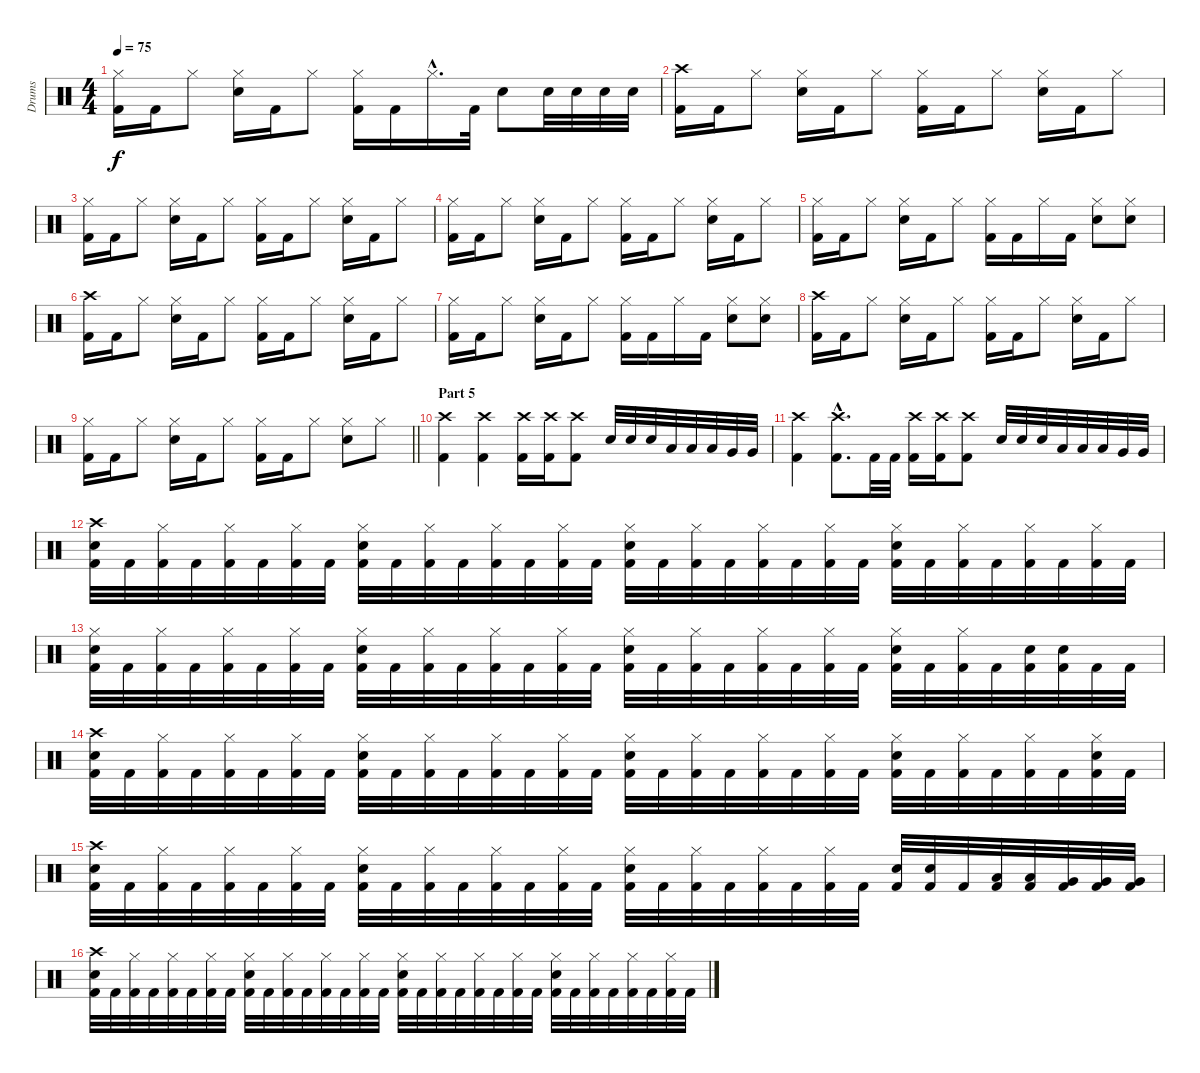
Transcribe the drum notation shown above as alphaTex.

\track ("Drums" "Drums") {instrument percussion}
\staff {score}
\articulation defaults
\ts (4 4)
\tempo 75
\clef neutral
\ks c
("Hi-Hat (closed)" "Kick (hit) 2").16{dy f} "Kick (hit) 2".16 "Hi-Hat (closed)".8 ("Hi-Hat (closed)" "Electric Snare (hit)").16 "Kick (hit) 2".16 "Hi-Hat (closed)".8 ("Hi-Hat (closed)" "Kick (hit) 2").16 "Kick (hit) 2".16 "Hi-Hat (closed)"{hac}.16{d} "Kick (hit) 2".32 "Electric Snare (hit)".8 "Electric Snare (hit)".32 "Electric Snare (hit)".32 "Electric Snare (hit)".32 "Electric Snare (hit)".32 |
("Crash high (hit)" "Kick (hit) 2").16 "Kick (hit) 2".16 "Hi-Hat (closed)".8 ("Hi-Hat (closed)" "Electric Snare (hit)").16 "Kick (hit) 2".16 "Hi-Hat (closed)".8 ("Hi-Hat (closed)" "Kick (hit) 2").16 "Kick (hit) 2".16 "Hi-Hat (closed)".8 ("Hi-Hat (closed)" "Electric Snare (hit)").16 "Kick (hit) 2".16 "Hi-Hat (closed)".8 |
("Hi-Hat (closed)" "Kick (hit) 2").16 "Kick (hit) 2".16 "Hi-Hat (closed)".8 ("Hi-Hat (closed)" "Electric Snare (hit)").16 "Kick (hit) 2".16 "Hi-Hat (closed)".8 ("Hi-Hat (closed)" "Kick (hit) 2").16 "Kick (hit) 2".16 "Hi-Hat (closed)".8 ("Hi-Hat (closed)" "Electric Snare (hit)").16 "Kick (hit) 2".16 "Hi-Hat (closed)".8 |
("Hi-Hat (closed)" "Kick (hit) 2").16 "Kick (hit) 2".16 "Hi-Hat (closed)".8 ("Hi-Hat (closed)" "Electric Snare (hit)").16 "Kick (hit) 2".16 "Hi-Hat (closed)".8 ("Hi-Hat (closed)" "Kick (hit) 2").16 "Kick (hit) 2".16 "Hi-Hat (closed)".8 ("Hi-Hat (closed)" "Electric Snare (hit)").16 "Kick (hit) 2".16 "Hi-Hat (closed)".8 |
("Hi-Hat (closed)" "Kick (hit) 2").16 "Kick (hit) 2".16 "Hi-Hat (closed)".8 ("Hi-Hat (closed)" "Electric Snare (hit)").16 "Kick (hit) 2".16 "Hi-Hat (closed)".8 ("Hi-Hat (closed)" "Kick (hit) 2").16 "Kick (hit) 2".16 "Hi-Hat (closed)".16 "Kick (hit) 2".16 ("Hi-Hat (closed)" "Electric Snare (hit)").8 ("Hi-Hat (closed)" "Electric Snare (hit)").8 |
("Crash high (hit)" "Kick (hit) 2").16 "Kick (hit) 2".16 "Hi-Hat (closed)".8 ("Hi-Hat (closed)" "Electric Snare (hit)").16 "Kick (hit) 2".16 "Hi-Hat (closed)".8 ("Hi-Hat (closed)" "Kick (hit) 2").16 "Kick (hit) 2".16 "Hi-Hat (closed)".8 ("Hi-Hat (closed)" "Electric Snare (hit)").16 "Kick (hit) 2".16 "Hi-Hat (closed)".8 |
("Hi-Hat (closed)" "Kick (hit) 2").16 "Kick (hit) 2".16 "Hi-Hat (closed)".8 ("Hi-Hat (closed)" "Electric Snare (hit)").16 "Kick (hit) 2".16 "Hi-Hat (closed)".8 ("Hi-Hat (closed)" "Kick (hit) 2").16 "Kick (hit) 2".16 "Hi-Hat (closed)".16 "Kick (hit) 2".16 ("Hi-Hat (closed)" "Electric Snare (hit)").8 ("Hi-Hat (closed)" "Electric Snare (hit)").8 |
("Crash high (hit)" "Kick (hit) 2").16 "Kick (hit) 2".16 "Hi-Hat (closed)".8 ("Hi-Hat (closed)" "Electric Snare (hit)").16 "Kick (hit) 2".16 "Hi-Hat (closed)".8 ("Hi-Hat (closed)" "Kick (hit) 2").16 "Kick (hit) 2".16 "Hi-Hat (closed)".8 ("Hi-Hat (closed)" "Electric Snare (hit)").16 "Kick (hit) 2".16 "Hi-Hat (closed)".8 |
\barLineRight lightlight
("Hi-Hat (closed)" "Kick (hit) 2").16 "Kick (hit) 2".16 "Hi-Hat (closed)".8 ("Hi-Hat (closed)" "Electric Snare (hit)").16 "Kick (hit) 2".16 "Hi-Hat (closed)".8 ("Hi-Hat (closed)" "Kick (hit) 2").16 "Kick (hit) 2".16 "Hi-Hat (closed)".8 ("Hi-Hat (closed)" "Electric Snare (hit)").8 "Hi-Hat (closed)".8 |
\section ("" "Part 5")
("Crash high (hit)" "Kick (hit) 2").4 ("Crash high (hit)" "Kick (hit) 2").4 ("Crash high (hit)" "Kick (hit) 2").16 ("Crash high (hit)" "Kick (hit) 2").16 ("Crash high (hit)" "Kick (hit) 2").8 "Electric Snare (hit)".32 "Electric Snare (hit)".32 "Electric Snare (hit)".32 "Low Tom (hit)".32 "Low Tom (hit)".32 "Low Tom (hit)".32 "Very Low Tom (hit)".32 "Very Low Tom (hit)".32 |
("Crash high (hit)" "Kick (hit) 2").4 ("Crash high (hit)"{hac} "Kick (hit) 2"{hac}).8{d} "Kick (hit) 2".32 "Kick (hit) 2".32 ("Crash high (hit)" "Kick (hit) 2").16 ("Crash high (hit)" "Kick (hit) 2").16 ("Crash high (hit)" "Kick (hit) 2").8 "Electric Snare (hit)".32 "Electric Snare (hit)".32 "Electric Snare (hit)".32 "Low Tom (hit)".32 "Low Tom (hit)".32 "Low Tom (hit)".32 "Very Low Tom (hit)".32 "Very Low Tom (hit)".32 |
("Crash high (hit)" "Electric Snare (hit)" "Kick (hit) 2").32 "Kick (hit) 2".32 ("Hi-Hat (closed)" "Kick (hit) 2").32 "Kick (hit) 2".32 ("Hi-Hat (closed)" "Kick (hit) 2").32 "Kick (hit) 2".32 ("Hi-Hat (closed)" "Kick (hit) 2").32 "Kick (hit) 2".32 ("Hi-Hat (closed)" "Electric Snare (hit)" "Kick (hit) 2").32 "Kick (hit) 2".32 ("Hi-Hat (closed)" "Kick (hit) 2").32 "Kick (hit) 2".32 ("Hi-Hat (closed)" "Kick (hit) 2").32 "Kick (hit) 2".32 ("Hi-Hat (closed)" "Kick (hit) 2").32 "Kick (hit) 2".32 ("Hi-Hat (closed)" "Electric Snare (hit)" "Kick (hit) 2").32 "Kick (hit) 2".32 ("Hi-Hat (closed)" "Kick (hit) 2").32 "Kick (hit) 2".32 ("Hi-Hat (closed)" "Kick (hit) 2").32 "Kick (hit) 2".32 ("Hi-Hat (closed)" "Kick (hit) 2").32 "Kick (hit) 2".32 ("Hi-Hat (closed)" "Electric Snare (hit)" "Kick (hit) 2").32 "Kick (hit) 2".32 ("Hi-Hat (closed)" "Kick (hit) 2").32 "Kick (hit) 2".32 ("Hi-Hat (closed)" "Kick (hit) 2").32 "Kick (hit) 2".32 ("Hi-Hat (closed)" "Kick (hit) 2").32 "Kick (hit) 2".32 |
("Hi-Hat (closed)" "Electric Snare (hit)" "Kick (hit) 2").32 "Kick (hit) 2".32 ("Hi-Hat (closed)" "Kick (hit) 2").32 "Kick (hit) 2".32 ("Hi-Hat (closed)" "Kick (hit) 2").32 "Kick (hit) 2".32 ("Hi-Hat (closed)" "Kick (hit) 2").32 "Kick (hit) 2".32 ("Hi-Hat (closed)" "Electric Snare (hit)" "Kick (hit) 2").32 "Kick (hit) 2".32 ("Hi-Hat (closed)" "Kick (hit) 2").32 "Kick (hit) 2".32 ("Hi-Hat (closed)" "Kick (hit) 2").32 "Kick (hit) 2".32 ("Hi-Hat (closed)" "Kick (hit) 2").32 "Kick (hit) 2".32 ("Hi-Hat (closed)" "Electric Snare (hit)" "Kick (hit) 2").32 "Kick (hit) 2".32 ("Hi-Hat (closed)" "Kick (hit) 2").32 "Kick (hit) 2".32 ("Hi-Hat (closed)" "Kick (hit) 2").32 "Kick (hit) 2".32 ("Hi-Hat (closed)" "Kick (hit) 2").32 "Kick (hit) 2".32 ("Hi-Hat (closed)" "Electric Snare (hit)" "Kick (hit) 2").32 "Kick (hit) 2".32 ("Hi-Hat (closed)" "Kick (hit) 2").32 "Kick (hit) 2".32 ("Electric Snare (hit)" "Kick (hit) 2").32 ("Electric Snare (hit)" "Kick (hit) 2").32 "Kick (hit) 2".32 "Kick (hit) 2".32 |
("Crash high (hit)" "Electric Snare (hit)" "Kick (hit) 2").32 "Kick (hit) 2".32 ("Hi-Hat (closed)" "Kick (hit) 2").32 "Kick (hit) 2".32 ("Hi-Hat (closed)" "Kick (hit) 2").32 "Kick (hit) 2".32 ("Hi-Hat (closed)" "Kick (hit) 2").32 "Kick (hit) 2".32 ("Hi-Hat (closed)" "Electric Snare (hit)" "Kick (hit) 2").32 "Kick (hit) 2".32 ("Hi-Hat (closed)" "Kick (hit) 2").32 "Kick (hit) 2".32 ("Hi-Hat (closed)" "Kick (hit) 2").32 "Kick (hit) 2".32 ("Hi-Hat (closed)" "Kick (hit) 2").32 "Kick (hit) 2".32 ("Hi-Hat (closed)" "Electric Snare (hit)" "Kick (hit) 2").32 "Kick (hit) 2".32 ("Hi-Hat (closed)" "Kick (hit) 2").32 "Kick (hit) 2".32 ("Hi-Hat (closed)" "Kick (hit) 2").32 "Kick (hit) 2".32 ("Hi-Hat (closed)" "Kick (hit) 2").32 "Kick (hit) 2".32 ("Hi-Hat (closed)" "Electric Snare (hit)" "Kick (hit) 2").32 "Kick (hit) 2".32 ("Hi-Hat (closed)" "Kick (hit) 2").32 "Kick (hit) 2".32 ("Hi-Hat (closed)" "Kick (hit) 2").32 "Kick (hit) 2".32 ("Hi-Hat (closed)" "Electric Snare (hit)" "Kick (hit) 2").32 "Kick (hit) 2".32 |
("Crash high (hit)" "Electric Snare (hit)" "Kick (hit) 2").32 "Kick (hit) 2".32 ("Hi-Hat (closed)" "Kick (hit) 2").32 "Kick (hit) 2".32 ("Hi-Hat (closed)" "Kick (hit) 2").32 "Kick (hit) 2".32 ("Hi-Hat (closed)" "Kick (hit) 2").32 "Kick (hit) 2".32 ("Hi-Hat (closed)" "Electric Snare (hit)" "Kick (hit) 2").32 "Kick (hit) 2".32 ("Hi-Hat (closed)" "Kick (hit) 2").32 "Kick (hit) 2".32 ("Hi-Hat (closed)" "Kick (hit) 2").32 "Kick (hit) 2".32 ("Hi-Hat (closed)" "Kick (hit) 2").32 "Kick (hit) 2".32 ("Hi-Hat (closed)" "Electric Snare (hit)" "Kick (hit) 2").32 "Kick (hit) 2".32 ("Hi-Hat (closed)" "Kick (hit) 2").32 "Kick (hit) 2".32 ("Hi-Hat (closed)" "Kick (hit) 2").32 "Kick (hit) 2".32 ("Hi-Hat (closed)" "Kick (hit) 2").32 "Kick (hit) 2".32 ("Electric Snare (hit)" "Kick (hit) 2").32 ("Electric Snare (hit)" "Kick (hit) 2").32 "Kick (hit) 2".32 ("Low Tom (hit)" "Kick (hit) 2").32 ("Low Tom (hit)" "Kick (hit) 2").32 ("Very Low Tom (hit)" "Kick (hit) 2").32 ("Very Low Tom (hit)" "Kick (hit) 2").32 ("Very Low Tom (hit)" "Kick (hit) 2").32 |
("Crash high (hit)" "Electric Snare (hit)" "Kick (hit) 2").32 "Kick (hit) 2".32 ("Hi-Hat (closed)" "Kick (hit) 2").32 "Kick (hit) 2".32 ("Hi-Hat (closed)" "Kick (hit) 2").32 "Kick (hit) 2".32 ("Hi-Hat (closed)" "Kick (hit) 2").32 "Kick (hit) 2".32 ("Hi-Hat (closed)" "Electric Snare (hit)" "Kick (hit) 2").32 "Kick (hit) 2".32 ("Hi-Hat (closed)" "Kick (hit) 2").32 "Kick (hit) 2".32 ("Hi-Hat (closed)" "Kick (hit) 2").32 "Kick (hit) 2".32 ("Hi-Hat (closed)" "Kick (hit) 2").32 "Kick (hit) 2".32 ("Hi-Hat (closed)" "Electric Snare (hit)" "Kick (hit) 2").32 "Kick (hit) 2".32 ("Hi-Hat (closed)" "Kick (hit) 2").32 "Kick (hit) 2".32 ("Hi-Hat (closed)" "Kick (hit) 2").32 "Kick (hit) 2".32 ("Hi-Hat (closed)" "Kick (hit) 2").32 "Kick (hit) 2".32 ("Hi-Hat (closed)" "Electric Snare (hit)" "Kick (hit) 2").32 "Kick (hit) 2".32 ("Hi-Hat (closed)" "Kick (hit) 2").32 "Kick (hit) 2".32 ("Hi-Hat (closed)" "Kick (hit) 2").32 "Kick (hit) 2".32 ("Hi-Hat (closed)" "Kick (hit) 2").32 "Kick (hit) 2".32
